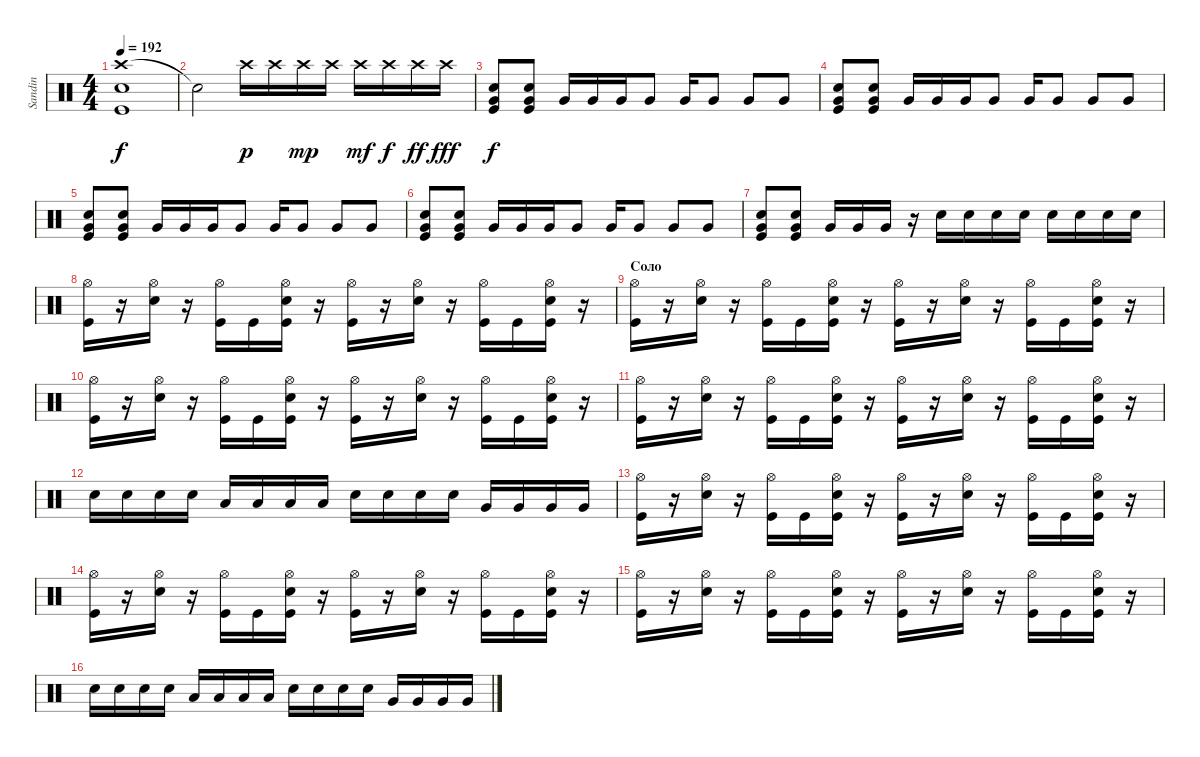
\track ("Sandin" "Sandin") {instrument percussion}
\staff {score}
\articulation defaults
\ts (4 4)
\tempo 192
\clef neutral
\ks c
("Crash high (hit)" "Electric Snare (hit)" "Kick (hit)").1{dy f} |
"Snare (hit)"{t}.2 "Crash high (hit)".16{dy p} "Crash high (hit)".16 "Crash high (hit)".16{dy mp} "Crash high (hit)".16 "Crash high (hit)".16{dy mf} "Crash high (hit)".16{dy f} "Crash high (hit)".16{dy ff} "Crash high (hit)".16{dy fff} |
("Electric Snare (hit)" "Very Low Tom (hit)" "Kick (hit)").8{dy f} ("Electric Snare (hit)" "Very Low Tom (hit)" "Kick (hit)").8 "Very Low Tom (hit)".16 "Very Low Tom (hit)".16 "Very Low Tom (hit)".16 "Very Low Tom (hit)".8 "Very Low Tom (hit)".16 "Very Low Tom (hit)".8 "Very Low Tom (hit)".8 "Very Low Tom (hit)".8 |
("Electric Snare (hit)" "Very Low Tom (hit)" "Kick (hit)").8 ("Electric Snare (hit)" "Very Low Tom (hit)" "Kick (hit)").8 "Very Low Tom (hit)".16 "Very Low Tom (hit)".16 "Very Low Tom (hit)".16 "Very Low Tom (hit)".8 "Very Low Tom (hit)".16 "Very Low Tom (hit)".8 "Very Low Tom (hit)".8 "Very Low Tom (hit)".8 |
("Electric Snare (hit)" "Very Low Tom (hit)" "Kick (hit)").8 ("Electric Snare (hit)" "Very Low Tom (hit)" "Kick (hit)").8 "Very Low Tom (hit)".16 "Very Low Tom (hit)".16 "Very Low Tom (hit)".16 "Very Low Tom (hit)".8 "Very Low Tom (hit)".16 "Very Low Tom (hit)".8 "Very Low Tom (hit)".8 "Very Low Tom (hit)".8 |
("Electric Snare (hit)" "Very Low Tom (hit)" "Kick (hit)").8 ("Electric Snare (hit)" "Very Low Tom (hit)" "Kick (hit)").8 "Very Low Tom (hit)".16 "Very Low Tom (hit)".16 "Very Low Tom (hit)".16 "Very Low Tom (hit)".8 "Very Low Tom (hit)".16 "Very Low Tom (hit)".8 "Very Low Tom (hit)".8 "Very Low Tom (hit)".8 |
("Electric Snare (hit)" "Very Low Tom (hit)" "Kick (hit)").8 ("Electric Snare (hit)" "Very Low Tom (hit)" "Kick (hit)").8 "Very Low Tom (hit)".16 "Very Low Tom (hit)".16 "Very Low Tom (hit)".16 r.16 "Electric Snare (hit)".16 "Electric Snare (hit)".16 "Electric Snare (hit)".16 "Electric Snare (hit)".16 "Electric Snare (hit)".16 "Electric Snare (hit)".16 "Electric Snare (hit)".16 "Electric Snare (hit)".16 |
("Hi-Hat (open)" "Kick (hit)").16 r.16 ("Hi-Hat (open)" "Electric Snare (hit)").16 r.16 ("Hi-Hat (open)" "Kick (hit)").16 "Kick (hit)".16 ("Hi-Hat (open)" "Electric Snare (hit)" "Kick (hit)").16 r.16 ("Hi-Hat (open)" "Kick (hit)").16 r.16 ("Hi-Hat (open)" "Electric Snare (hit)").16 r.16 ("Hi-Hat (open)" "Kick (hit)").16 "Kick (hit)".16 ("Hi-Hat (open)" "Electric Snare (hit)" "Kick (hit)").16 r.16 |
\section ("" "Соло")
("Hi-Hat (open)" "Kick (hit)").16 r.16 ("Hi-Hat (open)" "Electric Snare (hit)").16 r.16 ("Hi-Hat (open)" "Kick (hit)").16 "Kick (hit)".16 ("Hi-Hat (open)" "Electric Snare (hit)" "Kick (hit)").16 r.16 ("Hi-Hat (open)" "Kick (hit)").16 r.16 ("Hi-Hat (open)" "Electric Snare (hit)").16 r.16 ("Hi-Hat (open)" "Kick (hit)").16 "Kick (hit)".16 ("Hi-Hat (open)" "Electric Snare (hit)" "Kick (hit)").16 r.16 |
("Hi-Hat (open)" "Kick (hit)").16 r.16 ("Hi-Hat (open)" "Electric Snare (hit)").16 r.16 ("Hi-Hat (open)" "Kick (hit)").16 "Kick (hit)".16 ("Hi-Hat (open)" "Electric Snare (hit)" "Kick (hit)").16 r.16 ("Hi-Hat (open)" "Kick (hit)").16 r.16 ("Hi-Hat (open)" "Electric Snare (hit)").16 r.16 ("Hi-Hat (open)" "Kick (hit)").16 "Kick (hit)".16 ("Hi-Hat (open)" "Electric Snare (hit)" "Kick (hit)").16 r.16 |
("Hi-Hat (open)" "Kick (hit)").16 r.16 ("Hi-Hat (open)" "Electric Snare (hit)").16 r.16 ("Hi-Hat (open)" "Kick (hit)").16 "Kick (hit)".16 ("Hi-Hat (open)" "Electric Snare (hit)" "Kick (hit)").16 r.16 ("Hi-Hat (open)" "Kick (hit)").16 r.16 ("Hi-Hat (open)" "Electric Snare (hit)").16 r.16 ("Hi-Hat (open)" "Kick (hit)").16 "Kick (hit)".16 ("Hi-Hat (open)" "Electric Snare (hit)" "Kick (hit)").16 r.16 |
"Electric Snare (hit)".16 "Electric Snare (hit)".16 "Electric Snare (hit)".16 "Electric Snare (hit)".16 "Low Tom (hit)".16 "Low Tom (hit)".16 "Low Tom (hit)".16 "Low Tom (hit)".16 "Electric Snare (hit)".16 "Electric Snare (hit)".16 "Electric Snare (hit)".16 "Electric Snare (hit)".16 "Very Low Tom (hit)".16 "Very Low Tom (hit)".16 "Very Low Tom (hit)".16 "Very Low Tom (hit)".16 |
("Hi-Hat (open)" "Kick (hit)").16 r.16 ("Hi-Hat (open)" "Electric Snare (hit)").16 r.16 ("Hi-Hat (open)" "Kick (hit)").16 "Kick (hit)".16 ("Hi-Hat (open)" "Electric Snare (hit)" "Kick (hit)").16 r.16 ("Hi-Hat (open)" "Kick (hit)").16 r.16 ("Hi-Hat (open)" "Electric Snare (hit)").16 r.16 ("Hi-Hat (open)" "Kick (hit)").16 "Kick (hit)".16 ("Hi-Hat (open)" "Electric Snare (hit)" "Kick (hit)").16 r.16 |
("Hi-Hat (open)" "Kick (hit)").16 r.16 ("Hi-Hat (open)" "Electric Snare (hit)").16 r.16 ("Hi-Hat (open)" "Kick (hit)").16 "Kick (hit)".16 ("Hi-Hat (open)" "Electric Snare (hit)" "Kick (hit)").16 r.16 ("Hi-Hat (open)" "Kick (hit)").16 r.16 ("Hi-Hat (open)" "Electric Snare (hit)").16 r.16 ("Hi-Hat (open)" "Kick (hit)").16 "Kick (hit)".16 ("Hi-Hat (open)" "Electric Snare (hit)" "Kick (hit)").16 r.16 |
("Hi-Hat (open)" "Kick (hit)").16 r.16 ("Hi-Hat (open)" "Electric Snare (hit)").16 r.16 ("Hi-Hat (open)" "Kick (hit)").16 "Kick (hit)".16 ("Hi-Hat (open)" "Electric Snare (hit)" "Kick (hit)").16 r.16 ("Hi-Hat (open)" "Kick (hit)").16 r.16 ("Hi-Hat (open)" "Electric Snare (hit)").16 r.16 ("Hi-Hat (open)" "Kick (hit)").16 "Kick (hit)".16 ("Hi-Hat (open)" "Electric Snare (hit)" "Kick (hit)").16 r.16 |
"Electric Snare (hit)".16 "Electric Snare (hit)".16 "Electric Snare (hit)".16 "Electric Snare (hit)".16 "Low Tom (hit)".16 "Low Tom (hit)".16 "Low Tom (hit)".16 "Low Tom (hit)".16 "Electric Snare (hit)".16 "Electric Snare (hit)".16 "Electric Snare (hit)".16 "Electric Snare (hit)".16 "Very Low Tom (hit)".16 "Very Low Tom (hit)".16 "Very Low Tom (hit)".16 "Very Low Tom (hit)".16
